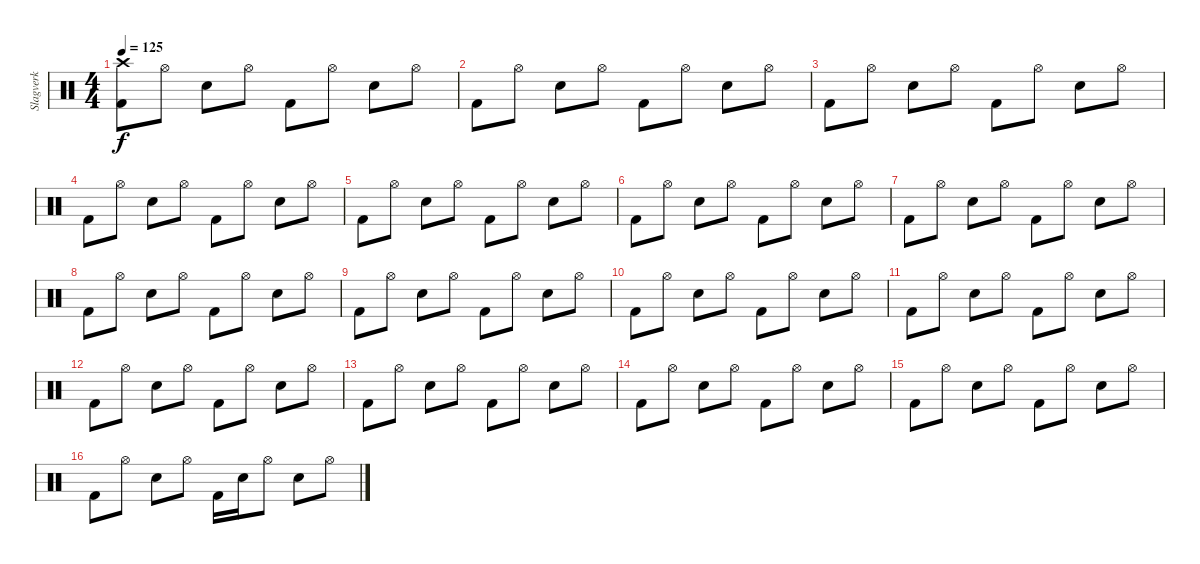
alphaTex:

\track ("Slagverk" "Slagverk") {instrument percussion}
\staff {score}
\articulation defaults
\ts (4 4)
\tempo 125
\clef neutral
\ks c
("Crash high (hit)" "Kick (hit) 2").8{dy f} "Hi-Hat (open)".8 "Electric Snare (hit)".8 "Hi-Hat (open)".8 "Kick (hit) 2".8 "Hi-Hat (open)".8 "Electric Snare (hit)".8 "Hi-Hat (open)".8 |
"Kick (hit) 2".8 "Hi-Hat (open)".8 "Electric Snare (hit)".8 "Hi-Hat (open)".8 "Kick (hit) 2".8 "Hi-Hat (open)".8 "Electric Snare (hit)".8 "Hi-Hat (open)".8 |
"Kick (hit) 2".8 "Hi-Hat (open)".8 "Electric Snare (hit)".8 "Hi-Hat (open)".8 "Kick (hit) 2".8 "Hi-Hat (open)".8 "Electric Snare (hit)".8 "Hi-Hat (open)".8 |
"Kick (hit) 2".8 "Hi-Hat (open)".8 "Electric Snare (hit)".8 "Hi-Hat (open)".8 "Kick (hit) 2".8 "Hi-Hat (open)".8 "Electric Snare (hit)".8 "Hi-Hat (open)".8 |
"Kick (hit) 2".8 "Hi-Hat (open)".8 "Electric Snare (hit)".8 "Hi-Hat (open)".8 "Kick (hit) 2".8 "Hi-Hat (open)".8 "Electric Snare (hit)".8 "Hi-Hat (open)".8 |
"Kick (hit) 2".8 "Hi-Hat (open)".8 "Electric Snare (hit)".8 "Hi-Hat (open)".8 "Kick (hit) 2".8 "Hi-Hat (open)".8 "Electric Snare (hit)".8 "Hi-Hat (open)".8 |
"Kick (hit) 2".8 "Hi-Hat (open)".8 "Electric Snare (hit)".8 "Hi-Hat (open)".8 "Kick (hit) 2".8 "Hi-Hat (open)".8 "Electric Snare (hit)".8 "Hi-Hat (open)".8 |
"Kick (hit) 2".8 "Hi-Hat (open)".8 "Electric Snare (hit)".8 "Hi-Hat (open)".8 "Kick (hit) 2".8 "Hi-Hat (open)".8 "Electric Snare (hit)".8 "Hi-Hat (open)".8 |
"Kick (hit) 2".8 "Hi-Hat (open)".8 "Electric Snare (hit)".8 "Hi-Hat (open)".8 "Kick (hit) 2".8 "Hi-Hat (open)".8 "Electric Snare (hit)".8 "Hi-Hat (open)".8 |
"Kick (hit) 2".8 "Hi-Hat (open)".8 "Electric Snare (hit)".8 "Hi-Hat (open)".8 "Kick (hit) 2".8 "Hi-Hat (open)".8 "Electric Snare (hit)".8 "Hi-Hat (open)".8 |
"Kick (hit) 2".8 "Hi-Hat (open)".8 "Electric Snare (hit)".8 "Hi-Hat (open)".8 "Kick (hit) 2".8 "Hi-Hat (open)".8 "Electric Snare (hit)".8 "Hi-Hat (open)".8 |
"Kick (hit) 2".8 "Hi-Hat (open)".8 "Electric Snare (hit)".8 "Hi-Hat (open)".8 "Kick (hit) 2".8 "Hi-Hat (open)".8 "Electric Snare (hit)".8 "Hi-Hat (open)".8 |
"Kick (hit) 2".8 "Hi-Hat (open)".8 "Electric Snare (hit)".8 "Hi-Hat (open)".8 "Kick (hit) 2".8 "Hi-Hat (open)".8 "Electric Snare (hit)".8 "Hi-Hat (open)".8 |
"Kick (hit) 2".8 "Hi-Hat (open)".8 "Electric Snare (hit)".8 "Hi-Hat (open)".8 "Kick (hit) 2".8 "Hi-Hat (open)".8 "Electric Snare (hit)".8 "Hi-Hat (open)".8 |
"Kick (hit) 2".8 "Hi-Hat (open)".8 "Electric Snare (hit)".8 "Hi-Hat (open)".8 "Kick (hit) 2".8 "Hi-Hat (open)".8 "Electric Snare (hit)".8 "Hi-Hat (open)".8 |
"Kick (hit) 2".8 "Hi-Hat (open)".8 "Electric Snare (hit)".8 "Hi-Hat (open)".8 "Kick (hit) 2".16 "Electric Snare (hit)".16 "Hi-Hat (open)".8 "Electric Snare (hit)".8 "Hi-Hat (open)".8
